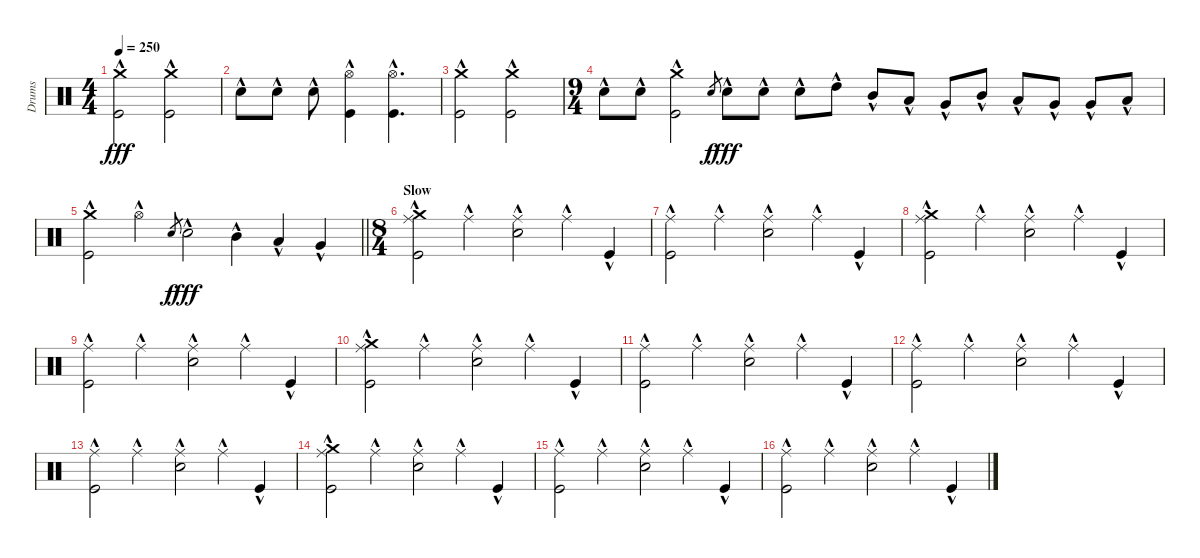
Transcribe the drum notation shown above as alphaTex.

\track ("Drums" "Drums") {instrument percussion}
\staff {score}
\articulation defaults
\ts (4 4)
\tempo 250
\clef neutral
\ks c
("Crash medium (hit)"{hac} "Kick (hit)"{hac}).2{dy fff} ("Crash medium (hit)"{hac} "Kick (hit)"{hac}).2 |
"Snare (hit) 2"{hac}.8 "Snare (hit) 2"{hac}.8 "Snare (hit) 2"{hac}.8 ("Hi-Hat (open)"{hac} "Kick (hit)"{hac}).4 ("Hi-Hat (open)"{hac} "Kick (hit)"{hac}).4{d} |
("Crash medium (hit)"{hac} "Kick (hit)"{hac}).2 ("Crash medium (hit)"{hac} "Kick (hit)"{hac}).2 |
\ts (9 4)
"Snare (hit) 2"{hac}.8 "Snare (hit) 2"{hac}.8 ("Crash medium (hit)"{hac} "Kick (hit)"{hac}).2 "Snare (hit) 2".8{gr dy f} "Snare (hit) 2"{hac}.8{dy fff} "Snare (hit) 2"{hac}.8 "Snare (hit) 2"{hac}.8 "High Tom (hit)"{hac}.8 "Mid Tom (hit)"{hac}.8 "Low Tom (hit)"{hac}.8 "Very Low Tom (hit)"{hac}.8 "Mid Tom (hit)"{hac}.8 "Low Tom (hit)"{hac}.8 "Very Low Tom (hit)"{hac}.8 "Very Low Tom (hit)"{hac}.8 "Low Floor Tom (hit)"{hac}.8 |
\barLineRight lightlight
("Crash medium (hit)"{hac} "Kick (hit)"{hac}).2 "Hi-Hat (open)"{hac}.2 "Snare (hit) 2".8{gr dy f} "Snare (hit) 2"{hac}.2{dy fff} "Mid Tom (hit)"{hac}.4 "Low Tom (hit)"{hac}.4 "Very Low Tom (hit)"{hac}.4 |
\ts (8 4)
\section ("" "Slow")
("Crash medium (hit)"{hac} "Ride (middle)"{hac} "Kick (hit)"{hac}).2 "Ride (middle)"{hac}.2 ("Ride (middle)"{hac} "Snare (hit) 2"{hac}).2 "Ride (middle)"{hac}.4 "Kick (hit)"{hac}.4 |
("Ride (middle)"{hac} "Kick (hit)"{hac}).2 "Ride (middle)"{hac}.2 ("Ride (middle)"{hac} "Snare (hit) 2"{hac}).2 "Ride (middle)"{hac}.4 "Kick (hit)"{hac}.4 |
("Crash medium (hit)"{hac} "Ride (middle)"{hac} "Kick (hit)"{hac}).2 "Ride (middle)"{hac}.2 ("Ride (middle)"{hac} "Snare (hit) 2"{hac}).2 "Ride (middle)"{hac}.4 "Kick (hit)"{hac}.4 |
("Ride (middle)"{hac} "Kick (hit)"{hac}).2 "Ride (middle)"{hac}.2 ("Ride (middle)"{hac} "Snare (hit) 2"{hac}).2 "Ride (middle)"{hac}.4 "Kick (hit)"{hac}.4 |
("Crash medium (hit)"{hac} "Ride (middle)"{hac} "Kick (hit)"{hac}).2 "Ride (middle)"{hac}.2 ("Ride (middle)"{hac} "Snare (hit) 2"{hac}).2 "Ride (middle)"{hac}.4 "Kick (hit)"{hac}.4 |
("Ride (middle)"{hac} "Kick (hit)"{hac}).2 "Ride (middle)"{hac}.2 ("Ride (middle)"{hac} "Snare (hit) 2"{hac}).2 "Ride (middle)"{hac}.4 "Kick (hit)"{hac}.4 |
("Ride (middle)"{hac} "Kick (hit)"{hac}).2 "Ride (middle)"{hac}.2 ("Ride (middle)"{hac} "Snare (hit) 2"{hac}).2 "Ride (middle)"{hac}.4 "Kick (hit)"{hac}.4 |
("Ride (middle)"{hac} "Kick (hit)"{hac}).2 "Ride (middle)"{hac}.2 ("Ride (middle)"{hac} "Snare (hit) 2"{hac}).2 "Ride (middle)"{hac}.4 "Kick (hit)"{hac}.4 |
("Crash medium (hit)"{hac} "Ride (middle)"{hac} "Kick (hit)"{hac}).2 "Ride (middle)"{hac}.2 ("Ride (middle)"{hac} "Snare (hit) 2"{hac}).2 "Ride (middle)"{hac}.4 "Kick (hit)"{hac}.4 |
("Ride (middle)"{hac} "Kick (hit)"{hac}).2 "Ride (middle)"{hac}.2 ("Ride (middle)"{hac} "Snare (hit) 2"{hac}).2 "Ride (middle)"{hac}.4 "Kick (hit)"{hac}.4 |
("Ride (middle)"{hac} "Kick (hit)"{hac}).2 "Ride (middle)"{hac}.2 ("Ride (middle)"{hac} "Snare (hit) 2"{hac}).2 "Ride (middle)"{hac}.4 "Kick (hit)"{hac}.4
